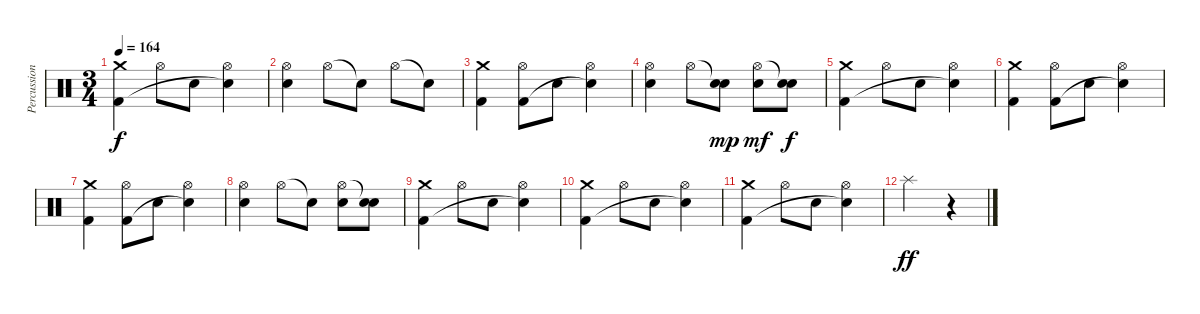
\track ("Percussion" "Percussion") {instrument percussion}
\staff {score}
\articulation defaults
\ts (3 4)
\tempo 164
\clef neutral
\ks c
("Crash medium (hit)" "Kick (hit) 2").4{dy f} "Hi-Hat (open)".8 "Snare (hit) 2".8 ("Hi-Hat (open)" "Snare (hit) 2"{t}).4 |
("Hi-Hat (open)" "Snare (hit) 2").4 "Hi-Hat (open)".8 "Snare (hit)"{t}.8 "Hi-Hat (open)".8 "Snare (hit)"{t}.8 |
("Crash medium (hit)" "Kick (hit) 2").4 ("Hi-Hat (open)" "Kick (hit) 2").8 "Snare (hit) 2".8 ("Hi-Hat (open)" "Snare (hit) 2"{t}).4 |
("Hi-Hat (open)" "Snare (hit) 2").4 "Hi-Hat (open)".8 ("Snare (hit)"{t} "Snare (hit) 2").8{dy mp} ("Hi-Hat (open)" "Snare (hit) 2").8{dy mf} ("Snare (hit)"{t} "Snare (hit) 2").8{dy f} |
("Crash medium (hit)" "Kick (hit) 2").4 "Hi-Hat (open)".8 "Snare (hit) 2".8 ("Hi-Hat (open)" "Snare (hit) 2"{t}).4 |
("Crash medium (hit)" "Kick (hit) 2").4 ("Hi-Hat (open)" "Kick (hit) 2").8 "Snare (hit) 2".8 ("Hi-Hat (open)" "Snare (hit) 2"{t}).4 |
("Crash medium (hit)" "Kick (hit) 2").4 ("Hi-Hat (open)" "Kick (hit) 2").8 "Snare (hit) 2".8 ("Hi-Hat (open)" "Snare (hit) 2"{t}).4 |
("Hi-Hat (open)" "Snare (hit) 2").4 "Hi-Hat (open)".8 "Snare (hit)"{t}.8 ("Hi-Hat (open)" "Snare (hit) 2").8 ("Snare (hit)"{t} "Snare (hit) 2").8 |
("Crash medium (hit)" "Kick (hit) 2").4 "Hi-Hat (open)".8 "Snare (hit) 2".8 ("Hi-Hat (open)" "Snare (hit) 2"{t}).4 |
("Crash medium (hit)" "Kick (hit) 2").4 "Hi-Hat (open)".8 "Snare (hit) 2".8 ("Hi-Hat (open)" "Snare (hit) 2"{t}).4 |
("Crash medium (hit)" "Kick (hit) 2").4 "Hi-Hat (open)".8 "Snare (hit) 2".8 ("Hi-Hat (open)" "Snare (hit) 2"{t}).4 |
"Splash (hit)".2{dy ff} r.4
